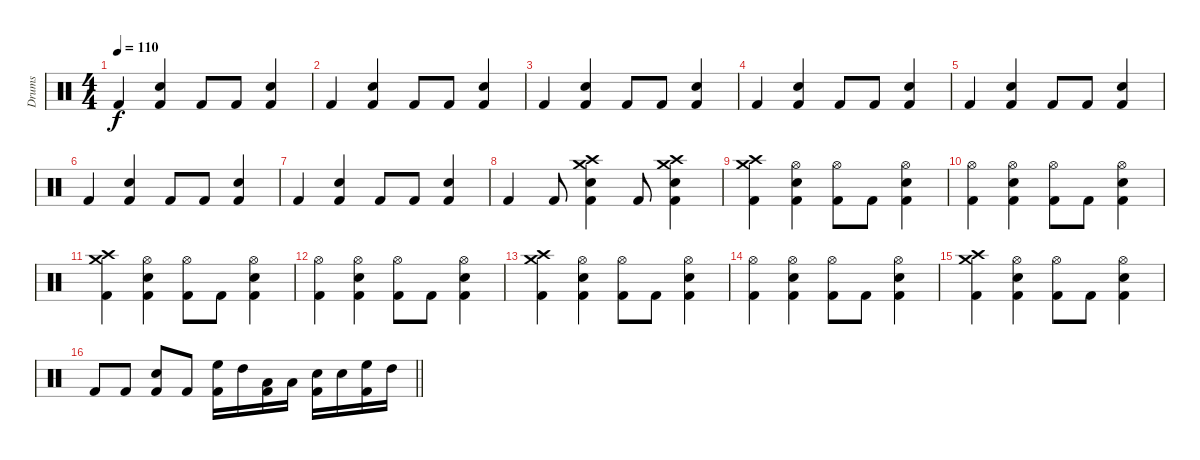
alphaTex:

\track ("Drums" "Drums") {instrument percussion}
\staff {score}
\articulation defaults
\ts (4 4)
\tempo 110
\clef neutral
\ks c "Kick (hit) 2".4{dy f}
("Electric Snare (hit)" "Kick (hit) 2").4 "Kick (hit) 2".8 "Kick (hit) 2".8 ("Electric Snare (hit)" "Kick (hit) 2").4 |
"Kick (hit) 2".4 ("Electric Snare (hit)" "Kick (hit) 2").4 "Kick (hit) 2".8 "Kick (hit) 2".8 ("Electric Snare (hit)" "Kick (hit) 2").4 |
"Kick (hit) 2".4 ("Electric Snare (hit)" "Kick (hit) 2").4 "Kick (hit) 2".8 "Kick (hit) 2".8 ("Electric Snare (hit)" "Kick (hit) 2").4 |
"Kick (hit) 2".4 ("Electric Snare (hit)" "Kick (hit) 2").4 "Kick (hit) 2".8 "Kick (hit) 2".8 ("Electric Snare (hit)" "Kick (hit) 2").4 |
"Kick (hit) 2".4 ("Electric Snare (hit)" "Kick (hit) 2").4 "Kick (hit) 2".8 "Kick (hit) 2".8 ("Electric Snare (hit)" "Kick (hit) 2").4 |
"Kick (hit) 2".4 ("Electric Snare (hit)" "Kick (hit) 2").4 "Kick (hit) 2".8 "Kick (hit) 2".8 ("Electric Snare (hit)" "Kick (hit) 2").4 |
"Kick (hit) 2".4 ("Electric Snare (hit)" "Kick (hit) 2").4 "Kick (hit) 2".8 "Kick (hit) 2".8 ("Electric Snare (hit)" "Kick (hit) 2").4 |
"Kick (hit) 2".4 "Kick (hit) 2".8 ("Crash medium (hit)" "Crash high (hit)" "Electric Snare (hit)" "Kick (hit) 2").4 "Kick (hit) 2".8 ("Crash medium (hit)" "Crash high (hit)" "Electric Snare (hit)" "Kick (hit) 2").4 |
("Crash medium (hit)" "Crash high (hit)" "Kick (hit) 2").4 ("Hi-Hat (open)" "Electric Snare (hit)" "Kick (hit) 2").4 ("Hi-Hat (open)" "Kick (hit) 2").8 "Kick (hit) 2".8 ("Hi-Hat (open)" "Electric Snare (hit)" "Kick (hit) 2").4 |
("Hi-Hat (open)" "Kick (hit) 2").4 ("Hi-Hat (open)" "Electric Snare (hit)" "Kick (hit) 2").4 ("Hi-Hat (open)" "Kick (hit) 2").8 "Kick (hit) 2".8 ("Hi-Hat (open)" "Electric Snare (hit)" "Kick (hit) 2").4 |
("Crash medium (hit)" "Crash high (hit)" "Kick (hit) 2").4 ("Hi-Hat (open)" "Electric Snare (hit)" "Kick (hit) 2").4 ("Hi-Hat (open)" "Kick (hit) 2").8 "Kick (hit) 2".8 ("Hi-Hat (open)" "Electric Snare (hit)" "Kick (hit) 2").4 |
("Hi-Hat (open)" "Kick (hit) 2").4 ("Hi-Hat (open)" "Electric Snare (hit)" "Kick (hit) 2").4 ("Hi-Hat (open)" "Kick (hit) 2").8 "Kick (hit) 2".8 ("Hi-Hat (open)" "Electric Snare (hit)" "Kick (hit) 2").4 |
("Crash medium (hit)" "Crash high (hit)" "Kick (hit) 2").4 ("Hi-Hat (open)" "Electric Snare (hit)" "Kick (hit) 2").4 ("Hi-Hat (open)" "Kick (hit) 2").8 "Kick (hit) 2".8 ("Hi-Hat (open)" "Electric Snare (hit)" "Kick (hit) 2").4 |
("Hi-Hat (open)" "Kick (hit) 2").4 ("Hi-Hat (open)" "Electric Snare (hit)" "Kick (hit) 2").4 ("Hi-Hat (open)" "Kick (hit) 2").8 "Kick (hit) 2".8 ("Hi-Hat (open)" "Electric Snare (hit)" "Kick (hit) 2").4 |
("Crash medium (hit)" "Crash high (hit)" "Kick (hit) 2").4 ("Hi-Hat (open)" "Electric Snare (hit)" "Kick (hit) 2").4 ("Hi-Hat (open)" "Kick (hit) 2").8 "Kick (hit) 2".8 ("Hi-Hat (open)" "Electric Snare (hit)" "Kick (hit) 2").4 |
\barLineRight lightlight "Kick (hit) 2".8 "Kick (hit) 2".8
("Electric Snare (hit)" "Kick (hit) 2").8 "Kick (hit) 2".8 ("High Floor Tom (hit)" "Kick (hit) 2").16 "High Tom (hit)".16 ("Low Tom (hit)" "Kick (hit) 2").16 "Low Floor Tom (hit)".16 ("Electric Snare (hit)" "Kick (hit) 2").16 "Electric Snare (hit)".16 ("High Floor Tom (hit)" "Kick (hit) 2").16 "High Tom (hit)".16
